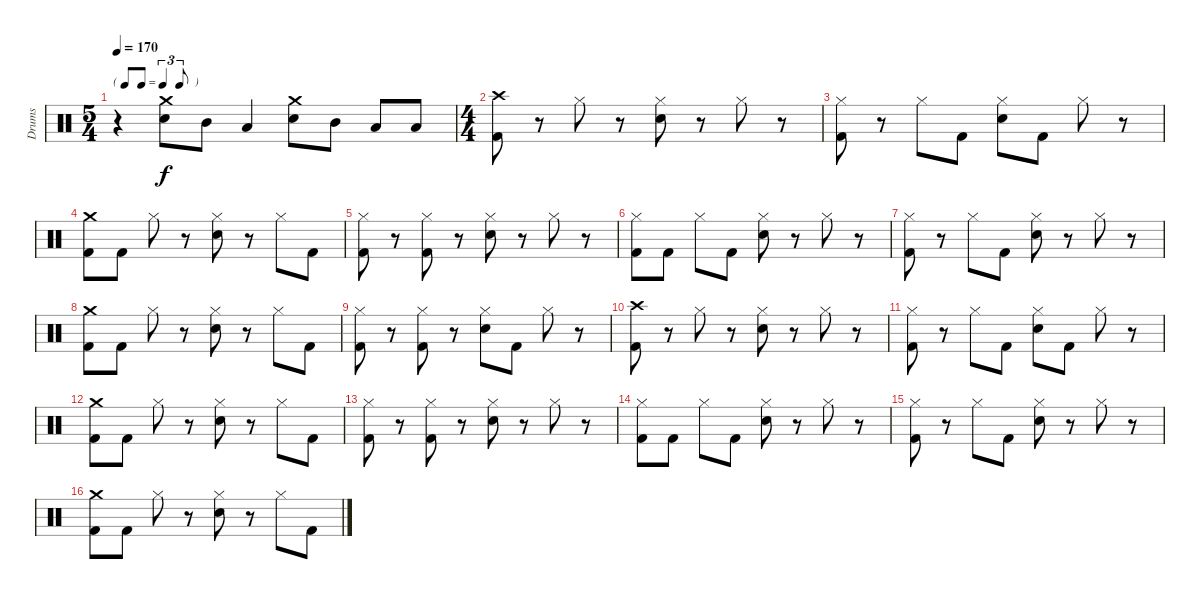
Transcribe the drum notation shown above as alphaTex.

\track ("Drums" "Drums") {instrument percussion}
\staff {score}
\articulation defaults
\ts (5 4)
\tf triplet8th
\tempo 170
\clef neutral
\ks c
r.4{dy f} ("Crash medium (hit)" "Snare (hit) 2").8 "Mid Tom (hit)".8 "Low Tom (hit)".4 ("Crash medium (hit)" "Snare (hit) 2").8 "Mid Tom (hit)".8 "Low Tom (hit)".8 "Low Floor Tom (hit)".8 |
\ts (4 4)
("Crash high (hit)" "Kick (hit) 2").8 r.8 "Hi-Hat (closed)".8 r.8 ("Hi-Hat (closed)" "Snare (hit) 2").8 r.8 "Hi-Hat (closed)".8 r.8 |
("Hi-Hat (closed)" "Kick (hit) 2").8 r.8 "Hi-Hat (closed)".8 "Kick (hit) 2".8 ("Hi-Hat (closed)" "Snare (hit) 2").8 "Kick (hit) 2".8 "Hi-Hat (closed)".8 r.8 |
("Crash medium (hit)" "Kick (hit) 2").8 "Kick (hit) 2".8 "Hi-Hat (closed)".8 r.8 ("Hi-Hat (closed)" "Snare (hit) 2").8 r.8 "Hi-Hat (closed)".8 "Kick (hit) 2".8 |
("Hi-Hat (closed)" "Kick (hit) 2").8 r.8 ("Hi-Hat (closed)" "Kick (hit) 2").8 r.8 ("Hi-Hat (closed)" "Snare (hit) 2").8 r.8 "Hi-Hat (closed)".8 r.8 |
("Hi-Hat (closed)" "Kick (hit) 2").8 "Kick (hit) 2".8 "Hi-Hat (closed)".8 "Kick (hit) 2".8 ("Hi-Hat (closed)" "Snare (hit) 2").8 r.8 "Hi-Hat (closed)".8 r.8 |
("Hi-Hat (closed)" "Kick (hit) 2").8 r.8 "Hi-Hat (closed)".8 "Kick (hit) 2".8 ("Hi-Hat (closed)" "Snare (hit) 2").8 r.8 "Hi-Hat (closed)".8 r.8 |
("Crash medium (hit)" "Kick (hit) 2").8 "Kick (hit) 2".8 "Hi-Hat (closed)".8 r.8 ("Hi-Hat (closed)" "Snare (hit) 2").8 r.8 "Hi-Hat (closed)".8 "Kick (hit) 2".8 |
("Hi-Hat (closed)" "Kick (hit) 2").8 r.8 ("Hi-Hat (closed)" "Kick (hit) 2").8 r.8 ("Hi-Hat (closed)" "Snare (hit) 2").8 "Kick (hit) 2".8 "Hi-Hat (closed)".8 r.8 |
("Crash high (hit)" "Kick (hit) 2").8 r.8 "Hi-Hat (closed)".8 r.8 ("Hi-Hat (closed)" "Snare (hit) 2").8 r.8 "Hi-Hat (closed)".8 r.8 |
("Hi-Hat (closed)" "Kick (hit) 2").8 r.8 "Hi-Hat (closed)".8 "Kick (hit) 2".8 ("Hi-Hat (closed)" "Snare (hit) 2").8 "Kick (hit) 2".8 "Hi-Hat (closed)".8 r.8 |
("Crash medium (hit)" "Kick (hit) 2").8 "Kick (hit) 2".8 "Hi-Hat (closed)".8 r.8 ("Hi-Hat (closed)" "Snare (hit) 2").8 r.8 "Hi-Hat (closed)".8 "Kick (hit) 2".8 |
("Hi-Hat (closed)" "Kick (hit) 2").8 r.8 ("Hi-Hat (closed)" "Kick (hit) 2").8 r.8 ("Hi-Hat (closed)" "Snare (hit) 2").8 r.8 "Hi-Hat (closed)".8 r.8 |
("Hi-Hat (closed)" "Kick (hit) 2").8 "Kick (hit) 2".8 "Hi-Hat (closed)".8 "Kick (hit) 2".8 ("Hi-Hat (closed)" "Snare (hit) 2").8 r.8 "Hi-Hat (closed)".8 r.8 |
("Hi-Hat (closed)" "Kick (hit) 2").8 r.8 "Hi-Hat (closed)".8 "Kick (hit) 2".8 ("Hi-Hat (closed)" "Snare (hit) 2").8 r.8 "Hi-Hat (closed)".8 r.8 |
("Crash medium (hit)" "Kick (hit) 2").8 "Kick (hit) 2".8 "Hi-Hat (closed)".8 r.8 ("Hi-Hat (closed)" "Snare (hit) 2").8 r.8 "Hi-Hat (closed)".8 "Kick (hit) 2".8
